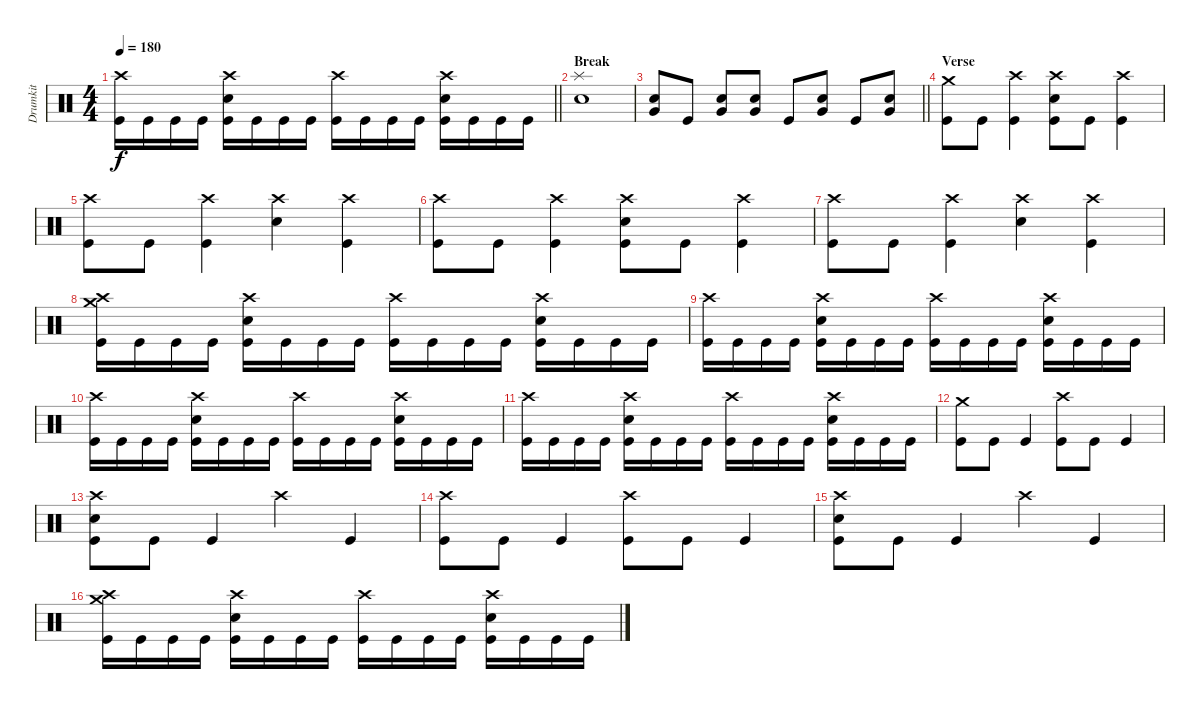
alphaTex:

\track ("Drumkit" "Drumkit") {instrument percussion}
\staff {score}
\articulation defaults
\ts (4 4)
\tempo 180
\clef neutral
\barLineRight lightlight
\ks c
("Crash high (hit)" "Kick (hit)").16{dy f} "Kick (hit)".16 "Kick (hit)".16 "Kick (hit)".16 ("Crash high (hit)" "Snare (hit) 2" "Kick (hit)").16 "Kick (hit)".16 "Kick (hit)".16 "Kick (hit)".16 ("Crash high (hit)" "Kick (hit)").16 "Kick (hit)".16 "Kick (hit)".16 "Kick (hit)".16 ("Crash high (hit)" "Snare (hit) 2" "Kick (hit)").16 "Kick (hit)".16 "Kick (hit)".16 "Kick (hit)".16 |
\section ("" "Break")
("Snare (hit) 2" "Splash (hit)").1 |
\barLineRight lightlight
("Very Low Tom (hit)" "Snare (hit) 2").8 "Kick (hit)".8 ("Snare (hit) 2" "Very Low Tom (hit)").8 ("Snare (hit) 2" "Very Low Tom (hit)").8 "Kick (hit)".8 ("Snare (hit) 2" "Very Low Tom (hit)").8 "Kick (hit)".8 ("Very Low Tom (hit)" "Snare (hit) 2").8 |
\section ("" "Verse")
("Crash medium (hit)" "Kick (hit)").8 "Kick (hit)".8 ("Crash high (hit)" "Kick (hit)").4 ("Crash high (hit)" "Snare (hit) 2" "Kick (hit)").8 "Kick (hit)".8 ("Crash high (hit)" "Kick (hit)").4 |
("Crash high (hit)" "Kick (hit)").8 "Kick (hit)".8 ("Crash high (hit)" "Kick (hit)").4 ("Crash high (hit)" "Snare (hit) 2").4 ("Crash high (hit)" "Kick (hit)").4 |
("Crash high (hit)" "Kick (hit)").8 "Kick (hit)".8 ("Crash high (hit)" "Kick (hit)").4 ("Crash high (hit)" "Snare (hit) 2" "Kick (hit)").8 "Kick (hit)".8 ("Crash high (hit)" "Kick (hit)").4 |
("Crash high (hit)" "Kick (hit)").8 "Kick (hit)".8 ("Crash high (hit)" "Kick (hit)").4 ("Crash high (hit)" "Snare (hit) 2").4 ("Crash high (hit)" "Kick (hit)").4 |
("Crash medium (hit)" "Crash high (hit)" "Kick (hit)").16 "Kick (hit)".16 "Kick (hit)".16 "Kick (hit)".16 ("Crash high (hit)" "Snare (hit) 2" "Kick (hit)").16 "Kick (hit)".16 "Kick (hit)".16 "Kick (hit)".16 ("Crash high (hit)" "Kick (hit)").16 "Kick (hit)".16 "Kick (hit)".16 "Kick (hit)".16 ("Crash high (hit)" "Snare (hit) 2" "Kick (hit)").16 "Kick (hit)".16 "Kick (hit)".16 "Kick (hit)".16 |
("Crash high (hit)" "Kick (hit)").16 "Kick (hit)".16 "Kick (hit)".16 "Kick (hit)".16 ("Crash high (hit)" "Snare (hit) 2" "Kick (hit)").16 "Kick (hit)".16 "Kick (hit)".16 "Kick (hit)".16 ("Crash high (hit)" "Kick (hit)").16 "Kick (hit)".16 "Kick (hit)".16 "Kick (hit)".16 ("Crash high (hit)" "Snare (hit) 2" "Kick (hit)").16 "Kick (hit)".16 "Kick (hit)".16 "Kick (hit)".16 |
("Crash high (hit)" "Kick (hit)").16 "Kick (hit)".16 "Kick (hit)".16 "Kick (hit)".16 ("Crash high (hit)" "Snare (hit) 2" "Kick (hit)").16 "Kick (hit)".16 "Kick (hit)".16 "Kick (hit)".16 ("Crash high (hit)" "Kick (hit)").16 "Kick (hit)".16 "Kick (hit)".16 "Kick (hit)".16 ("Crash high (hit)" "Snare (hit) 2" "Kick (hit)").16 "Kick (hit)".16 "Kick (hit)".16 "Kick (hit)".16 |
("Crash high (hit)" "Kick (hit)").16 "Kick (hit)".16 "Kick (hit)".16 "Kick (hit)".16 ("Crash high (hit)" "Snare (hit) 2" "Kick (hit)").16 "Kick (hit)".16 "Kick (hit)".16 "Kick (hit)".16 ("Crash high (hit)" "Kick (hit)").16 "Kick (hit)".16 "Kick (hit)".16 "Kick (hit)".16 ("Crash high (hit)" "Snare (hit) 2" "Kick (hit)").16 "Kick (hit)".16 "Kick (hit)".16 "Kick (hit)".16 |
("Crash medium (hit)" "Kick (hit)").8 "Kick (hit)".8 "Kick (hit)".4 ("Crash high (hit)" "Kick (hit)").8 "Kick (hit)".8 "Kick (hit)".4 |
("Crash high (hit)" "Snare (hit) 2" "Kick (hit)").8 "Kick (hit)".8 "Kick (hit)".4 "Crash high (hit)".4 "Kick (hit)".4 |
("Crash high (hit)" "Kick (hit)").8 "Kick (hit)".8 "Kick (hit)".4 ("Crash high (hit)" "Kick (hit)").8 "Kick (hit)".8 "Kick (hit)".4 |
("Crash high (hit)" "Snare (hit) 2" "Kick (hit)").8 "Kick (hit)".8 "Kick (hit)".4 "Crash high (hit)".4 "Kick (hit)".4 |
("Crash medium (hit)" "Crash high (hit)" "Kick (hit)").16 "Kick (hit)".16 "Kick (hit)".16 "Kick (hit)".16 ("Crash high (hit)" "Snare (hit) 2" "Kick (hit)").16 "Kick (hit)".16 "Kick (hit)".16 "Kick (hit)".16 ("Crash high (hit)" "Kick (hit)").16 "Kick (hit)".16 "Kick (hit)".16 "Kick (hit)".16 ("Crash high (hit)" "Snare (hit) 2" "Kick (hit)").16 "Kick (hit)".16 "Kick (hit)".16 "Kick (hit)".16
